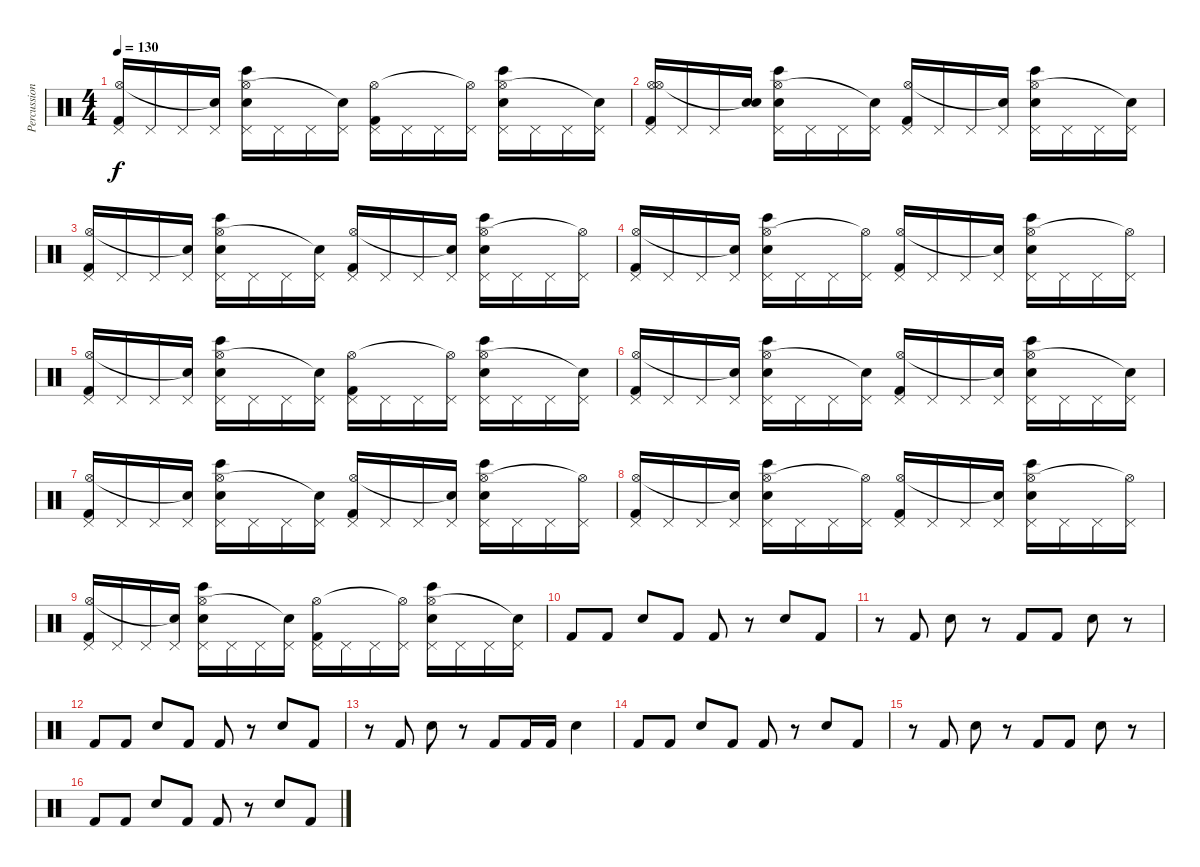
\track ("Percussion" "Percussion") {instrument percussion}
\staff {score}
\articulation defaults
\ts (4 4)
\tempo 130
\clef neutral
\ks c
("Pedal Hi-Hat (hit)" "Hi-Hat (open)" "Kick (hit) 2").16{dy f} "Pedal Hi-Hat (hit)".16 "Pedal Hi-Hat (hit)".16 ("Pedal Hi-Hat (hit)" "Snare (hit)"{t}).16 ("Pedal Hi-Hat (hit)" "Hi-Hat (open)" "Electric Snare (hit)" "Bongo High (hit)").16 "Pedal Hi-Hat (hit)".16 "Pedal Hi-Hat (hit)".16 ("Pedal Hi-Hat (hit)" "Snare (hit)"{t}).16 ("Pedal Hi-Hat (hit)" "Hi-Hat (open)" "Kick (hit) 2").16 "Pedal Hi-Hat (hit)".16 "Pedal Hi-Hat (hit)".16 ("Pedal Hi-Hat (hit)" "Hi-Hat (open)"{t}).16 ("Pedal Hi-Hat (hit)" "Hi-Hat (open)" "Electric Snare (hit)" "Bongo High (hit)").16 "Pedal Hi-Hat (hit)".16 "Pedal Hi-Hat (hit)".16 ("Pedal Hi-Hat (hit)" "Snare (hit)"{t}).16 |
("Pedal Hi-Hat (hit)" "Hi-Hat (open)" "Hi-Hat (open)" "Kick (hit) 2").16 "Pedal Hi-Hat (hit)".16 "Pedal Hi-Hat (hit)".16 ("Snare (hit)" "Snare (hit)"{t}).16 ("Pedal Hi-Hat (hit)" "Hi-Hat (open)" "Electric Snare (hit)" "Bongo High (hit)").16 "Pedal Hi-Hat (hit)".16 "Pedal Hi-Hat (hit)".16 ("Pedal Hi-Hat (hit)" "Snare (hit)"{t}).16 ("Pedal Hi-Hat (hit)" "Hi-Hat (open)" "Kick (hit) 2").16 "Pedal Hi-Hat (hit)".16 "Pedal Hi-Hat (hit)".16 ("Pedal Hi-Hat (hit)" "Snare (hit)"{t}).16 ("Pedal Hi-Hat (hit)" "Hi-Hat (open)" "Electric Snare (hit)" "Bongo High (hit)").16 "Pedal Hi-Hat (hit)".16 "Pedal Hi-Hat (hit)".16 ("Pedal Hi-Hat (hit)" "Snare (hit)"{t}).16 |
("Pedal Hi-Hat (hit)" "Hi-Hat (open)" "Kick (hit) 2").16 "Pedal Hi-Hat (hit)".16 "Pedal Hi-Hat (hit)".16 ("Pedal Hi-Hat (hit)" "Snare (hit)"{t}).16 ("Pedal Hi-Hat (hit)" "Hi-Hat (open)" "Electric Snare (hit)" "Bongo High (hit)").16 "Pedal Hi-Hat (hit)".16 "Pedal Hi-Hat (hit)".16 ("Pedal Hi-Hat (hit)" "Snare (hit)"{t}).16 ("Pedal Hi-Hat (hit)" "Hi-Hat (open)" "Kick (hit) 2").16 "Pedal Hi-Hat (hit)".16 "Pedal Hi-Hat (hit)".16 ("Pedal Hi-Hat (hit)" "Snare (hit)"{t}).16 ("Pedal Hi-Hat (hit)" "Hi-Hat (open)" "Electric Snare (hit)" "Bongo High (hit)").16 "Pedal Hi-Hat (hit)".16 "Pedal Hi-Hat (hit)".16 ("Pedal Hi-Hat (hit)" "Hi-Hat (open)"{t}).16 |
("Pedal Hi-Hat (hit)" "Hi-Hat (open)" "Kick (hit) 2").16 "Pedal Hi-Hat (hit)".16 "Pedal Hi-Hat (hit)".16 ("Pedal Hi-Hat (hit)" "Snare (hit)"{t}).16 ("Pedal Hi-Hat (hit)" "Hi-Hat (open)" "Electric Snare (hit)" "Bongo High (hit)").16 "Pedal Hi-Hat (hit)".16 "Pedal Hi-Hat (hit)".16 ("Pedal Hi-Hat (hit)" "Hi-Hat (open)"{t}).16 ("Pedal Hi-Hat (hit)" "Hi-Hat (open)" "Kick (hit) 2").16 "Pedal Hi-Hat (hit)".16 "Pedal Hi-Hat (hit)".16 ("Pedal Hi-Hat (hit)" "Snare (hit)"{t}).16 ("Pedal Hi-Hat (hit)" "Hi-Hat (open)" "Electric Snare (hit)" "Bongo High (hit)").16 "Pedal Hi-Hat (hit)".16 "Pedal Hi-Hat (hit)".16 ("Pedal Hi-Hat (hit)" "Hi-Hat (open)"{t}).16 |
("Pedal Hi-Hat (hit)" "Hi-Hat (open)" "Kick (hit) 2").16 "Pedal Hi-Hat (hit)".16 "Pedal Hi-Hat (hit)".16 ("Pedal Hi-Hat (hit)" "Snare (hit)"{t}).16 ("Pedal Hi-Hat (hit)" "Hi-Hat (open)" "Electric Snare (hit)" "Bongo High (hit)").16 "Pedal Hi-Hat (hit)".16 "Pedal Hi-Hat (hit)".16 ("Pedal Hi-Hat (hit)" "Snare (hit)"{t}).16 ("Pedal Hi-Hat (hit)" "Hi-Hat (open)" "Kick (hit) 2").16 "Pedal Hi-Hat (hit)".16 "Pedal Hi-Hat (hit)".16 ("Pedal Hi-Hat (hit)" "Hi-Hat (open)"{t}).16 ("Pedal Hi-Hat (hit)" "Hi-Hat (open)" "Electric Snare (hit)" "Bongo High (hit)").16 "Pedal Hi-Hat (hit)".16 "Pedal Hi-Hat (hit)".16 ("Pedal Hi-Hat (hit)" "Snare (hit)"{t}).16 |
("Pedal Hi-Hat (hit)" "Hi-Hat (open)" "Kick (hit) 2").16 "Pedal Hi-Hat (hit)".16 "Pedal Hi-Hat (hit)".16 ("Pedal Hi-Hat (hit)" "Snare (hit)"{t}).16 ("Pedal Hi-Hat (hit)" "Hi-Hat (open)" "Electric Snare (hit)" "Bongo High (hit)").16 "Pedal Hi-Hat (hit)".16 "Pedal Hi-Hat (hit)".16 ("Pedal Hi-Hat (hit)" "Snare (hit)"{t}).16 ("Pedal Hi-Hat (hit)" "Hi-Hat (open)" "Kick (hit) 2").16 "Pedal Hi-Hat (hit)".16 "Pedal Hi-Hat (hit)".16 ("Pedal Hi-Hat (hit)" "Snare (hit)"{t}).16 ("Pedal Hi-Hat (hit)" "Hi-Hat (open)" "Electric Snare (hit)" "Bongo High (hit)").16 "Pedal Hi-Hat (hit)".16 "Pedal Hi-Hat (hit)".16 ("Pedal Hi-Hat (hit)" "Snare (hit)"{t}).16 |
("Pedal Hi-Hat (hit)" "Hi-Hat (open)" "Kick (hit) 2").16 "Pedal Hi-Hat (hit)".16 "Pedal Hi-Hat (hit)".16 ("Pedal Hi-Hat (hit)" "Snare (hit)"{t}).16 ("Pedal Hi-Hat (hit)" "Hi-Hat (open)" "Electric Snare (hit)" "Bongo High (hit)").16 "Pedal Hi-Hat (hit)".16 "Pedal Hi-Hat (hit)".16 ("Pedal Hi-Hat (hit)" "Snare (hit)"{t}).16 ("Pedal Hi-Hat (hit)" "Hi-Hat (open)" "Kick (hit) 2").16 "Pedal Hi-Hat (hit)".16 "Pedal Hi-Hat (hit)".16 ("Pedal Hi-Hat (hit)" "Snare (hit)"{t}).16 ("Pedal Hi-Hat (hit)" "Hi-Hat (open)" "Electric Snare (hit)" "Bongo High (hit)").16 "Pedal Hi-Hat (hit)".16 "Pedal Hi-Hat (hit)".16 ("Pedal Hi-Hat (hit)" "Hi-Hat (open)"{t}).16 |
("Pedal Hi-Hat (hit)" "Hi-Hat (open)" "Kick (hit) 2").16 "Pedal Hi-Hat (hit)".16 "Pedal Hi-Hat (hit)".16 ("Pedal Hi-Hat (hit)" "Snare (hit)"{t}).16 ("Pedal Hi-Hat (hit)" "Hi-Hat (open)" "Electric Snare (hit)" "Bongo High (hit)").16 "Pedal Hi-Hat (hit)".16 "Pedal Hi-Hat (hit)".16 ("Pedal Hi-Hat (hit)" "Hi-Hat (open)"{t}).16 ("Pedal Hi-Hat (hit)" "Hi-Hat (open)" "Kick (hit) 2").16 "Pedal Hi-Hat (hit)".16 "Pedal Hi-Hat (hit)".16 ("Pedal Hi-Hat (hit)" "Snare (hit)"{t}).16 ("Pedal Hi-Hat (hit)" "Hi-Hat (open)" "Electric Snare (hit)" "Bongo High (hit)").16 "Pedal Hi-Hat (hit)".16 "Pedal Hi-Hat (hit)".16 ("Pedal Hi-Hat (hit)" "Hi-Hat (open)"{t}).16 |
("Pedal Hi-Hat (hit)" "Hi-Hat (open)" "Kick (hit) 2").16 "Pedal Hi-Hat (hit)".16 "Pedal Hi-Hat (hit)".16 ("Pedal Hi-Hat (hit)" "Snare (hit)"{t}).16 ("Pedal Hi-Hat (hit)" "Hi-Hat (open)" "Electric Snare (hit)" "Bongo High (hit)").16 "Pedal Hi-Hat (hit)".16 "Pedal Hi-Hat (hit)".16 ("Pedal Hi-Hat (hit)" "Snare (hit)"{t}).16 ("Pedal Hi-Hat (hit)" "Hi-Hat (open)" "Kick (hit) 2").16 "Pedal Hi-Hat (hit)".16 "Pedal Hi-Hat (hit)".16 ("Pedal Hi-Hat (hit)" "Hi-Hat (open)"{t}).16 ("Pedal Hi-Hat (hit)" "Hi-Hat (open)" "Electric Snare (hit)" "Bongo High (hit)").16 "Pedal Hi-Hat (hit)".16 "Pedal Hi-Hat (hit)".16 ("Pedal Hi-Hat (hit)" "Snare (hit)"{t}).16 |
"Kick (hit) 2".8 "Kick (hit) 2".8 "Electric Snare (hit)".8 "Kick (hit) 2".8 "Kick (hit) 2".8 r.8 "Electric Snare (hit)".8 "Kick (hit) 2".8 |
r.8 "Kick (hit) 2".8 "Electric Snare (hit)".8 r.8 "Kick (hit) 2".8 "Kick (hit) 2".8 "Electric Snare (hit)".8 r.8 |
"Kick (hit) 2".8 "Kick (hit) 2".8 "Electric Snare (hit)".8 "Kick (hit) 2".8 "Kick (hit) 2".8 r.8 "Electric Snare (hit)".8 "Kick (hit) 2".8 |
r.8 "Kick (hit) 2".8 "Electric Snare (hit)".8 r.8 "Kick (hit) 2".8 "Kick (hit) 2".16 "Kick (hit) 2".16 "Electric Snare (hit)".4 |
"Kick (hit) 2".8 "Kick (hit) 2".8 "Electric Snare (hit)".8 "Kick (hit) 2".8 "Kick (hit) 2".8 r.8 "Electric Snare (hit)".8 "Kick (hit) 2".8 |
r.8 "Kick (hit) 2".8 "Electric Snare (hit)".8 r.8 "Kick (hit) 2".8 "Kick (hit) 2".8 "Electric Snare (hit)".8 r.8 |
"Kick (hit) 2".8 "Kick (hit) 2".8 "Electric Snare (hit)".8 "Kick (hit) 2".8 "Kick (hit) 2".8 r.8 "Electric Snare (hit)".8 "Kick (hit) 2".8
